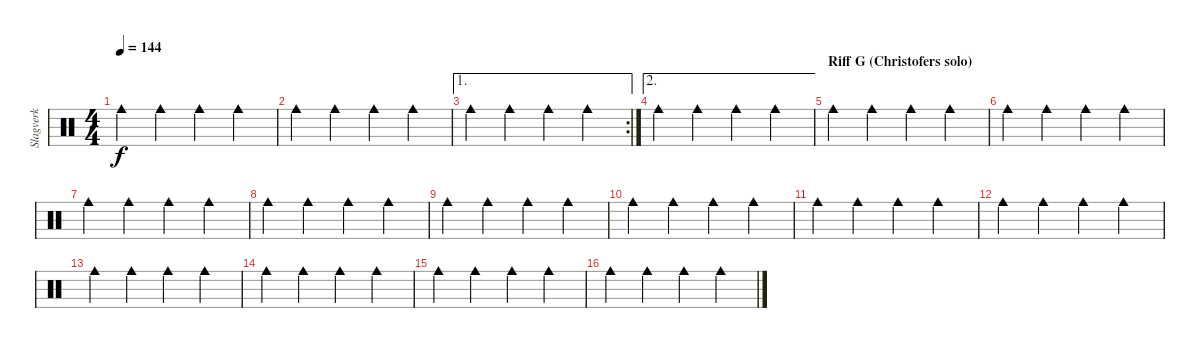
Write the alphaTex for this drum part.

\track ("Slagverk" "Slagverk") {instrument percussion}
\staff {score}
\articulation defaults
\ts (4 4)
\tempo 144
\clef neutral
\ks c "Cowbell medium (hit)".4{dy f} "Cowbell medium (hit)".4 "Cowbell medium (hit)".4 "Cowbell medium (hit)".4
|
"Cowbell medium (hit)".4 "Cowbell medium (hit)".4 "Cowbell medium (hit)".4 "Cowbell medium (hit)".4 |
\ae 1
\rc 2 "Cowbell medium (hit)".4 "Cowbell medium (hit)".4 "Cowbell medium (hit)".4 "Cowbell medium (hit)".4
|
\ae 2 "Cowbell medium (hit)".4 "Cowbell medium (hit)".4 "Cowbell medium (hit)".4 "Cowbell medium (hit)".4
|
\section ("" "Riff G (Christofers solo)")
"Cowbell medium (hit)".4 "Cowbell medium (hit)".4 "Cowbell medium (hit)".4 "Cowbell medium (hit)".4 |
"Cowbell medium (hit)".4 "Cowbell medium (hit)".4 "Cowbell medium (hit)".4 "Cowbell medium (hit)".4 |
"Cowbell medium (hit)".4 "Cowbell medium (hit)".4 "Cowbell medium (hit)".4 "Cowbell medium (hit)".4 |
"Cowbell medium (hit)".4 "Cowbell medium (hit)".4 "Cowbell medium (hit)".4 "Cowbell medium (hit)".4 |
"Cowbell medium (hit)".4 "Cowbell medium (hit)".4 "Cowbell medium (hit)".4 "Cowbell medium (hit)".4 |
"Cowbell medium (hit)".4 "Cowbell medium (hit)".4 "Cowbell medium (hit)".4 "Cowbell medium (hit)".4 |
"Cowbell medium (hit)".4 "Cowbell medium (hit)".4 "Cowbell medium (hit)".4 "Cowbell medium (hit)".4 |
"Cowbell medium (hit)".4 "Cowbell medium (hit)".4 "Cowbell medium (hit)".4 "Cowbell medium (hit)".4 |
"Cowbell medium (hit)".4 "Cowbell medium (hit)".4 "Cowbell medium (hit)".4 "Cowbell medium (hit)".4 |
"Cowbell medium (hit)".4 "Cowbell medium (hit)".4 "Cowbell medium (hit)".4 "Cowbell medium (hit)".4 |
"Cowbell medium (hit)".4 "Cowbell medium (hit)".4 "Cowbell medium (hit)".4 "Cowbell medium (hit)".4 |
"Cowbell medium (hit)".4 "Cowbell medium (hit)".4 "Cowbell medium (hit)".4 "Cowbell medium (hit)".4
